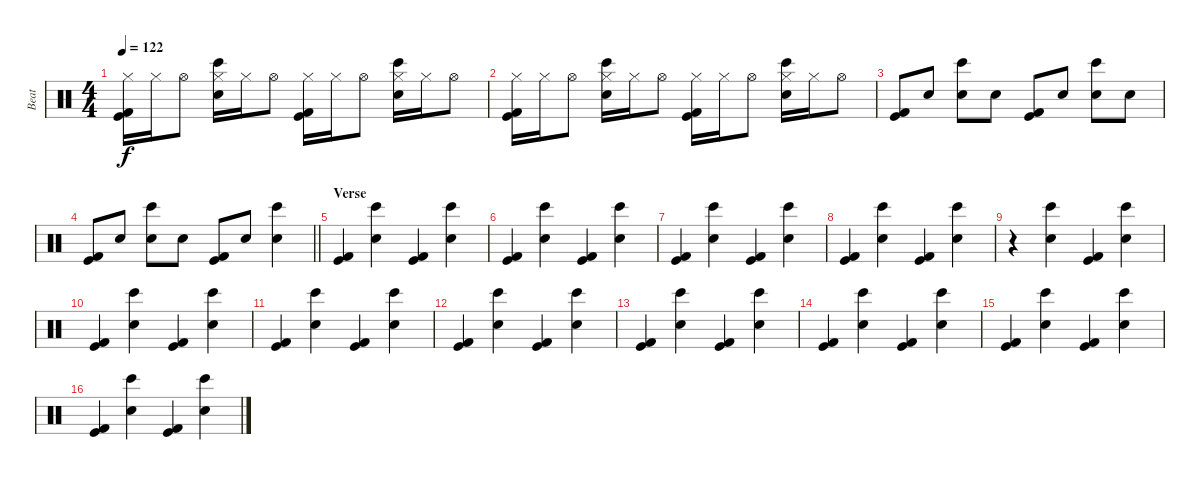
\track ("Beat" "Beat") {instrument percussion}
\staff {score}
\articulation defaults
\ts (4 4)
\tempo 122
\clef neutral
\ks c
("Hi-Hat (closed)" "Kick (hit)" "Kick (hit) 2").16{dy f} "Hi-Hat (closed)".16 "Hi-Hat (open)".8 ("Hi-Hat (closed)" "Bongo High (hit)" "Electric Snare (hit)").16 "Hi-Hat (closed)".16 "Hi-Hat (open)".8 ("Hi-Hat (closed)" "Kick (hit)" "Kick (hit) 2").16 "Hi-Hat (closed)".16 "Hi-Hat (open)".8 ("Hi-Hat (closed)" "Bongo High (hit)" "Electric Snare (hit)").16 "Hi-Hat (closed)".16 "Hi-Hat (open)".8 |
("Hi-Hat (closed)" "Kick (hit)" "Kick (hit) 2").16 "Hi-Hat (closed)".16 "Hi-Hat (open)".8 ("Hi-Hat (closed)" "Bongo High (hit)" "Electric Snare (hit)").16 "Hi-Hat (closed)".16 "Hi-Hat (open)".8 ("Hi-Hat (closed)" "Kick (hit)" "Kick (hit) 2").16 "Hi-Hat (closed)".16 "Hi-Hat (open)".8 ("Hi-Hat (closed)" "Bongo High (hit)" "Electric Snare (hit)").16 "Hi-Hat (closed)".16 "Hi-Hat (open)".8 |
("Kick (hit)" "Kick (hit) 2").8 "Hand Clap (hit)".8 ("Bongo High (hit)" "Electric Snare (hit)").8 "Hand Clap (hit)".8 ("Kick (hit)" "Kick (hit) 2").8 "Hand Clap (hit)".8 ("Bongo High (hit)" "Electric Snare (hit)").8 "Hand Clap (hit)".8 |
\barLineRight lightlight
("Kick (hit)" "Kick (hit) 2").8 "Hand Clap (hit)".8 ("Bongo High (hit)" "Electric Snare (hit)").8 "Hand Clap (hit)".8 ("Kick (hit)" "Kick (hit) 2").8 "Hand Clap (hit)".8 ("Bongo High (hit)" "Electric Snare (hit)").4 |
\section ("" "Verse")
("Kick (hit)" "Kick (hit) 2").4 ("Bongo High (hit)" "Electric Snare (hit)").4 ("Kick (hit)" "Kick (hit) 2").4 ("Bongo High (hit)" "Electric Snare (hit)").4 |
("Kick (hit)" "Kick (hit) 2").4 ("Bongo High (hit)" "Electric Snare (hit)").4 ("Kick (hit)" "Kick (hit) 2").4 ("Bongo High (hit)" "Electric Snare (hit)").4 |
("Kick (hit)" "Kick (hit) 2").4 ("Bongo High (hit)" "Electric Snare (hit)").4 ("Kick (hit)" "Kick (hit) 2").4 ("Bongo High (hit)" "Electric Snare (hit)").4 |
("Kick (hit)" "Kick (hit) 2").4 ("Bongo High (hit)" "Electric Snare (hit)").4 ("Kick (hit)" "Kick (hit) 2").4 ("Bongo High (hit)" "Electric Snare (hit)").4 |
r.4 ("Bongo High (hit)" "Electric Snare (hit)").4 ("Kick (hit)" "Kick (hit) 2").4 ("Bongo High (hit)" "Electric Snare (hit)").4 |
("Kick (hit)" "Kick (hit) 2").4 ("Bongo High (hit)" "Electric Snare (hit)").4 ("Kick (hit)" "Kick (hit) 2").4 ("Bongo High (hit)" "Electric Snare (hit)").4 |
("Kick (hit)" "Kick (hit) 2").4 ("Bongo High (hit)" "Electric Snare (hit)").4 ("Kick (hit)" "Kick (hit) 2").4 ("Bongo High (hit)" "Electric Snare (hit)").4 |
("Kick (hit)" "Kick (hit) 2").4 ("Bongo High (hit)" "Electric Snare (hit)").4 ("Kick (hit)" "Kick (hit) 2").4 ("Bongo High (hit)" "Electric Snare (hit)").4 |
("Kick (hit)" "Kick (hit) 2").4 ("Bongo High (hit)" "Electric Snare (hit)").4 ("Kick (hit)" "Kick (hit) 2").4 ("Bongo High (hit)" "Electric Snare (hit)").4 |
("Kick (hit)" "Kick (hit) 2").4 ("Bongo High (hit)" "Electric Snare (hit)").4 ("Kick (hit)" "Kick (hit) 2").4 ("Bongo High (hit)" "Electric Snare (hit)").4 |
("Kick (hit)" "Kick (hit) 2").4 ("Bongo High (hit)" "Electric Snare (hit)").4 ("Kick (hit)" "Kick (hit) 2").4 ("Bongo High (hit)" "Electric Snare (hit)").4 |
("Kick (hit)" "Kick (hit) 2").4 ("Bongo High (hit)" "Electric Snare (hit)").4 ("Kick (hit)" "Kick (hit) 2").4 ("Bongo High (hit)" "Electric Snare (hit)").4
